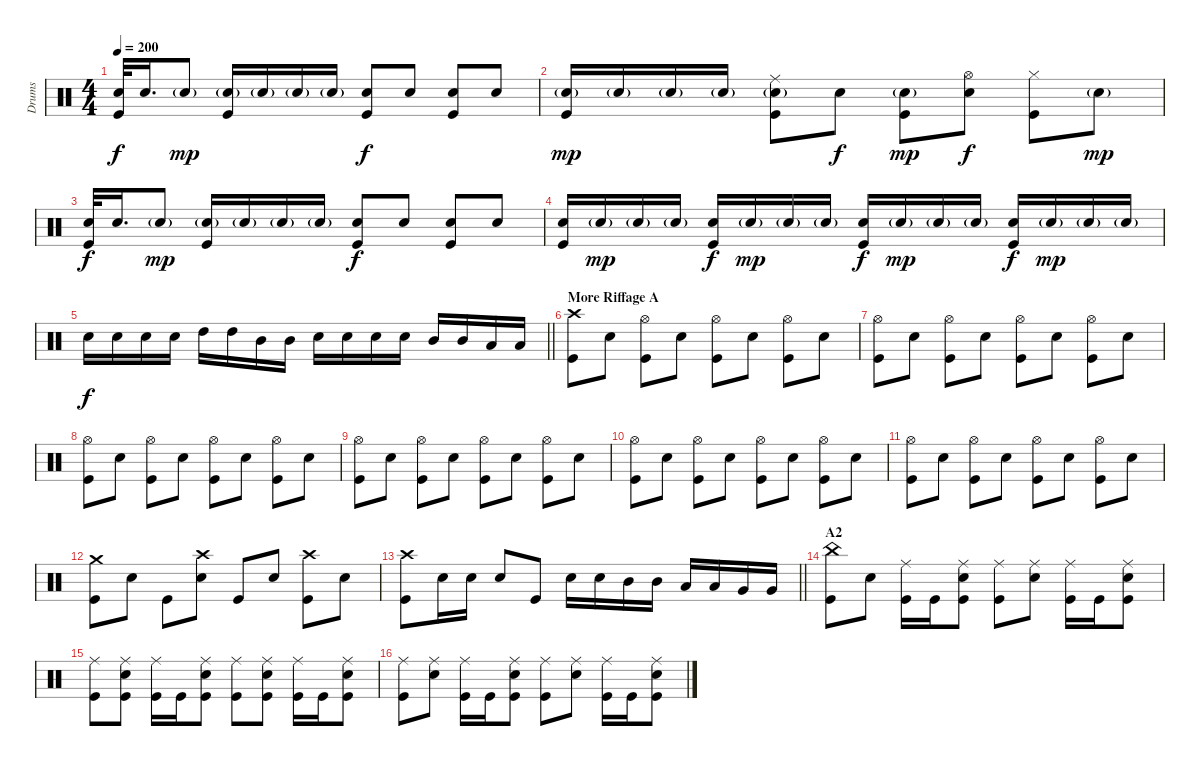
\track ("Drums" "Drums") {instrument percussion}
\staff {score}
\articulation defaults
\ts (4 4)
\tempo 200
\clef neutral
\ks c
("Electric Snare (hit)" "Kick (hit)").32{dy f} "Electric Snare (hit)".16{d} "Electric Snare (hit)"{g}.8{dy mp} ("Electric Snare (hit)"{g} "Kick (hit)").16 "Electric Snare (hit)"{g}.16 "Electric Snare (hit)"{g}.16 "Electric Snare (hit)"{g}.16 ("Electric Snare (hit)" "Kick (hit)").8{dy f} "Electric Snare (hit)".8 ("Electric Snare (hit)" "Kick (hit)").8 "Electric Snare (hit)".8 |
("Electric Snare (hit)"{g} "Kick (hit)").16{dy mp} "Electric Snare (hit)"{g}.16 "Electric Snare (hit)"{g}.16 "Electric Snare (hit)"{g}.16 ("Ride (middle)" "Electric Snare (hit)"{g} "Kick (hit)").8 "Electric Snare (hit)".8{dy f} ("Electric Snare (hit)"{g} "Kick (hit)").8{dy mp} ("Hi-Hat (open)" "Electric Snare (hit)").8{dy f} ("Hi-Hat (closed)" "Kick (hit)").8 "Electric Snare (hit)"{g}.8{dy mp} |
("Electric Snare (hit)" "Kick (hit)").32{dy f} "Electric Snare (hit)".16{d} "Electric Snare (hit)"{g}.8{dy mp} ("Electric Snare (hit)"{g} "Kick (hit)").16 "Electric Snare (hit)"{g}.16 "Electric Snare (hit)"{g}.16 "Electric Snare (hit)"{g}.16 ("Electric Snare (hit)" "Kick (hit)").8{dy f} "Electric Snare (hit)".8 ("Electric Snare (hit)" "Kick (hit)").8 "Electric Snare (hit)".8 |
("Electric Snare (hit)" "Kick (hit)").16 "Electric Snare (hit)"{g}.16{dy mp} "Electric Snare (hit)"{g}.16 "Electric Snare (hit)"{g}.16 ("Electric Snare (hit)" "Kick (hit)").16{dy f} "Electric Snare (hit)"{g}.16{dy mp} "Electric Snare (hit)"{g}.16 "Electric Snare (hit)"{g}.16 ("Electric Snare (hit)" "Kick (hit)").16{dy f} "Electric Snare (hit)"{g}.16{dy mp} "Electric Snare (hit)"{g}.16 "Electric Snare (hit)"{g}.16 ("Electric Snare (hit)" "Kick (hit)").16{dy f} "Electric Snare (hit)"{g}.16{dy mp} "Electric Snare (hit)"{g}.16 "Electric Snare (hit)"{g}.16 |
\barLineRight lightlight "Electric Snare (hit)".16{dy f} "Electric Snare (hit)".16 "Electric Snare (hit)".16 "Electric Snare (hit)".16 "High Tom (hit)".16 "High Tom (hit)".16 "Mid Tom (hit)".16 "Mid Tom (hit)".16 "Electric Snare (hit)".16 "Electric Snare (hit)".16 "Electric Snare (hit)".16 "Electric Snare (hit)".16 "Mid Tom (hit)".16 "Mid Tom (hit)".16 "Low Tom (hit)".16 "Low Tom (hit)".16
|
\section ("" "More Riffage A")
("Crash high (hit)" "Kick (hit)").8 "Electric Snare (hit)".8 ("Hi-Hat (open)" "Kick (hit)").8 "Electric Snare (hit)".8 ("Hi-Hat (open)" "Kick (hit)").8 "Electric Snare (hit)".8 ("Hi-Hat (open)" "Kick (hit)").8 "Electric Snare (hit)".8 |
("Hi-Hat (open)" "Kick (hit)").8 "Electric Snare (hit)".8 ("Hi-Hat (open)" "Kick (hit)").8 "Electric Snare (hit)".8 ("Hi-Hat (open)" "Kick (hit)").8 "Electric Snare (hit)".8 ("Hi-Hat (open)" "Kick (hit)").8 "Electric Snare (hit)".8 |
("Hi-Hat (open)" "Kick (hit)").8 "Electric Snare (hit)".8 ("Hi-Hat (open)" "Kick (hit)").8 "Electric Snare (hit)".8 ("Hi-Hat (open)" "Kick (hit)").8 "Electric Snare (hit)".8 ("Hi-Hat (open)" "Kick (hit)").8 "Electric Snare (hit)".8 |
("Hi-Hat (open)" "Kick (hit)").8 "Electric Snare (hit)".8 ("Hi-Hat (open)" "Kick (hit)").8 "Electric Snare (hit)".8 ("Hi-Hat (open)" "Kick (hit)").8 "Electric Snare (hit)".8 ("Hi-Hat (open)" "Kick (hit)").8 "Electric Snare (hit)".8 |
("Hi-Hat (open)" "Kick (hit)").8 "Electric Snare (hit)".8 ("Hi-Hat (open)" "Kick (hit)").8 "Electric Snare (hit)".8 ("Hi-Hat (open)" "Kick (hit)").8 "Electric Snare (hit)".8 ("Hi-Hat (open)" "Kick (hit)").8 "Electric Snare (hit)".8 |
("Hi-Hat (open)" "Kick (hit)").8 "Electric Snare (hit)".8 ("Hi-Hat (open)" "Kick (hit)").8 "Electric Snare (hit)".8 ("Hi-Hat (open)" "Kick (hit)").8 "Electric Snare (hit)".8 ("Hi-Hat (open)" "Kick (hit)").8 "Electric Snare (hit)".8 |
("Crash medium (hit)" "Kick (hit)").8 "Electric Snare (hit)".8 "Kick (hit)".8 ("Crash high (hit)" "Electric Snare (hit)").8 "Kick (hit)".8 "Electric Snare (hit)".8 ("Crash high (hit)" "Kick (hit)").8 "Electric Snare (hit)".8 |
\barLineRight lightlight
("Crash high (hit)" "Kick (hit)").8 "Electric Snare (hit)".16 "Electric Snare (hit)".16 "Electric Snare (hit)".8 "Kick (hit)".8 "Electric Snare (hit)".16 "Electric Snare (hit)".16 "Mid Tom (hit)".16 "Mid Tom (hit)".16 "Low Tom (hit)".16 "Low Tom (hit)".16 "Very Low Tom (hit)".16 "Very Low Tom (hit)".16 |
\section ("" "A2")
("China (hit)" "Kick (hit)").8 "Electric Snare (hit)".8 ("Ride (middle)" "Kick (hit)").16 "Kick (hit)".16 ("Ride (middle)" "Electric Snare (hit)" "Kick (hit)").8 ("Ride (middle)" "Kick (hit)").8 ("Ride (middle)" "Electric Snare (hit)").8 ("Ride (middle)" "Kick (hit)").16 "Kick (hit)".16 ("Ride (middle)" "Electric Snare (hit)" "Kick (hit)").8 |
("Ride (middle)" "Kick (hit)").8 ("Ride (middle)" "Electric Snare (hit)" "Kick (hit)").8 ("Ride (middle)" "Kick (hit)").16 "Kick (hit)".16 ("Ride (middle)" "Electric Snare (hit)" "Kick (hit)").8 ("Ride (middle)" "Kick (hit)").8 ("Ride (middle)" "Electric Snare (hit)" "Kick (hit)").8 ("Ride (middle)" "Kick (hit)").16 "Kick (hit)".16 ("Ride (middle)" "Electric Snare (hit)" "Kick (hit)").8 |
("Ride (middle)" "Kick (hit)").8 ("Ride (middle)" "Electric Snare (hit)").8 ("Ride (middle)" "Kick (hit)").16 "Kick (hit)".16 ("Ride (middle)" "Electric Snare (hit)" "Kick (hit)").8 ("Ride (middle)" "Kick (hit)").8 ("Ride (middle)" "Electric Snare (hit)").8 ("Ride (middle)" "Kick (hit)").16 "Kick (hit)".16 ("Ride (middle)" "Electric Snare (hit)" "Kick (hit)").8
